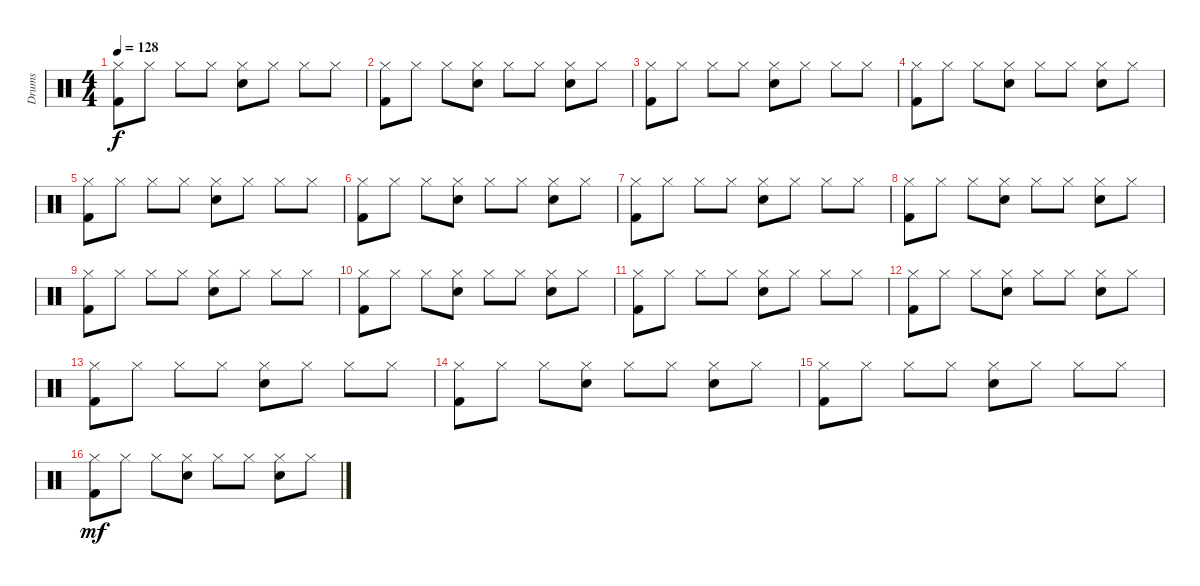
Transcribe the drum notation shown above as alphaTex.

\track ("Drums" "Drums") {instrument percussion}
\staff {score}
\articulation defaults
\ts (4 4)
\tempo 128
\clef neutral
\ks c
("Hi-Hat (closed)" "Kick (hit) 2").8{dy f} "Hi-Hat (closed)".8 "Hi-Hat (closed)".8 "Hi-Hat (closed)".8 ("Hi-Hat (closed)" "Snare (hit) 2").8 "Hi-Hat (closed)".8 "Hi-Hat (closed)".8 "Hi-Hat (closed)".8 |
("Hi-Hat (closed)" "Kick (hit) 2").8 "Hi-Hat (closed)".8 "Hi-Hat (closed)".8 ("Hi-Hat (closed)" "Snare (hit) 2").8 "Hi-Hat (closed)".8 "Hi-Hat (closed)".8 ("Hi-Hat (closed)" "Snare (hit) 2").8 "Hi-Hat (closed)".8 |
("Hi-Hat (closed)" "Kick (hit) 2").8 "Hi-Hat (closed)".8 "Hi-Hat (closed)".8 "Hi-Hat (closed)".8 ("Hi-Hat (closed)" "Snare (hit) 2").8 "Hi-Hat (closed)".8 "Hi-Hat (closed)".8 "Hi-Hat (closed)".8 |
("Hi-Hat (closed)" "Kick (hit) 2").8 "Hi-Hat (closed)".8 "Hi-Hat (closed)".8 ("Hi-Hat (closed)" "Snare (hit) 2").8 "Hi-Hat (closed)".8 "Hi-Hat (closed)".8 ("Hi-Hat (closed)" "Snare (hit) 2").8 "Hi-Hat (closed)".8 |
("Hi-Hat (closed)" "Kick (hit) 2").8 "Hi-Hat (closed)".8 "Hi-Hat (closed)".8 "Hi-Hat (closed)".8 ("Hi-Hat (closed)" "Snare (hit) 2").8 "Hi-Hat (closed)".8 "Hi-Hat (closed)".8 "Hi-Hat (closed)".8 |
("Hi-Hat (closed)" "Kick (hit) 2").8 "Hi-Hat (closed)".8 "Hi-Hat (closed)".8 ("Hi-Hat (closed)" "Snare (hit) 2").8 "Hi-Hat (closed)".8 "Hi-Hat (closed)".8 ("Hi-Hat (closed)" "Snare (hit) 2").8 "Hi-Hat (closed)".8 |
("Hi-Hat (closed)" "Kick (hit) 2").8 "Hi-Hat (closed)".8 "Hi-Hat (closed)".8 "Hi-Hat (closed)".8 ("Hi-Hat (closed)" "Snare (hit) 2").8 "Hi-Hat (closed)".8 "Hi-Hat (closed)".8 "Hi-Hat (closed)".8 |
("Hi-Hat (closed)" "Kick (hit) 2").8 "Hi-Hat (closed)".8 "Hi-Hat (closed)".8 ("Hi-Hat (closed)" "Snare (hit) 2").8 "Hi-Hat (closed)".8 "Hi-Hat (closed)".8 ("Hi-Hat (closed)" "Snare (hit) 2").8 "Hi-Hat (closed)".8 |
("Hi-Hat (closed)" "Kick (hit) 2").8 "Hi-Hat (closed)".8 "Hi-Hat (closed)".8 "Hi-Hat (closed)".8 ("Hi-Hat (closed)" "Snare (hit) 2").8 "Hi-Hat (closed)".8 "Hi-Hat (closed)".8 "Hi-Hat (closed)".8 |
("Hi-Hat (closed)" "Kick (hit) 2").8 "Hi-Hat (closed)".8 "Hi-Hat (closed)".8 ("Hi-Hat (closed)" "Snare (hit) 2").8 "Hi-Hat (closed)".8 "Hi-Hat (closed)".8 ("Hi-Hat (closed)" "Snare (hit) 2").8 "Hi-Hat (closed)".8 |
("Hi-Hat (closed)" "Kick (hit) 2").8 "Hi-Hat (closed)".8 "Hi-Hat (closed)".8 "Hi-Hat (closed)".8 ("Hi-Hat (closed)" "Snare (hit) 2").8 "Hi-Hat (closed)".8 "Hi-Hat (closed)".8 "Hi-Hat (closed)".8 |
("Hi-Hat (closed)" "Kick (hit) 2").8 "Hi-Hat (closed)".8 "Hi-Hat (closed)".8 ("Hi-Hat (closed)" "Snare (hit) 2").8 "Hi-Hat (closed)".8 "Hi-Hat (closed)".8 ("Hi-Hat (closed)" "Snare (hit) 2").8 "Hi-Hat (closed)".8 |
("Hi-Hat (closed)" "Kick (hit) 2").8 "Hi-Hat (closed)".8 "Hi-Hat (closed)".8 "Hi-Hat (closed)".8 ("Hi-Hat (closed)" "Snare (hit) 2").8 "Hi-Hat (closed)".8 "Hi-Hat (closed)".8 "Hi-Hat (closed)".8 |
("Hi-Hat (closed)" "Kick (hit) 2").8 "Hi-Hat (closed)".8 "Hi-Hat (closed)".8 ("Hi-Hat (closed)" "Snare (hit) 2").8 "Hi-Hat (closed)".8 "Hi-Hat (closed)".8 ("Hi-Hat (closed)" "Snare (hit) 2").8 "Hi-Hat (closed)".8 |
("Hi-Hat (closed)" "Kick (hit) 2").8 "Hi-Hat (closed)".8 "Hi-Hat (closed)".8 "Hi-Hat (closed)".8 ("Hi-Hat (closed)" "Snare (hit) 2").8 "Hi-Hat (closed)".8 "Hi-Hat (closed)".8 "Hi-Hat (closed)".8 |
("Hi-Hat (closed)" "Kick (hit) 2").8{dy mf} "Hi-Hat (closed)".8 "Hi-Hat (closed)".8 ("Hi-Hat (closed)" "Snare (hit) 2").8 "Hi-Hat (closed)".8 "Hi-Hat (closed)".8 ("Hi-Hat (closed)" "Snare (hit) 2").8 "Hi-Hat (closed)".8
